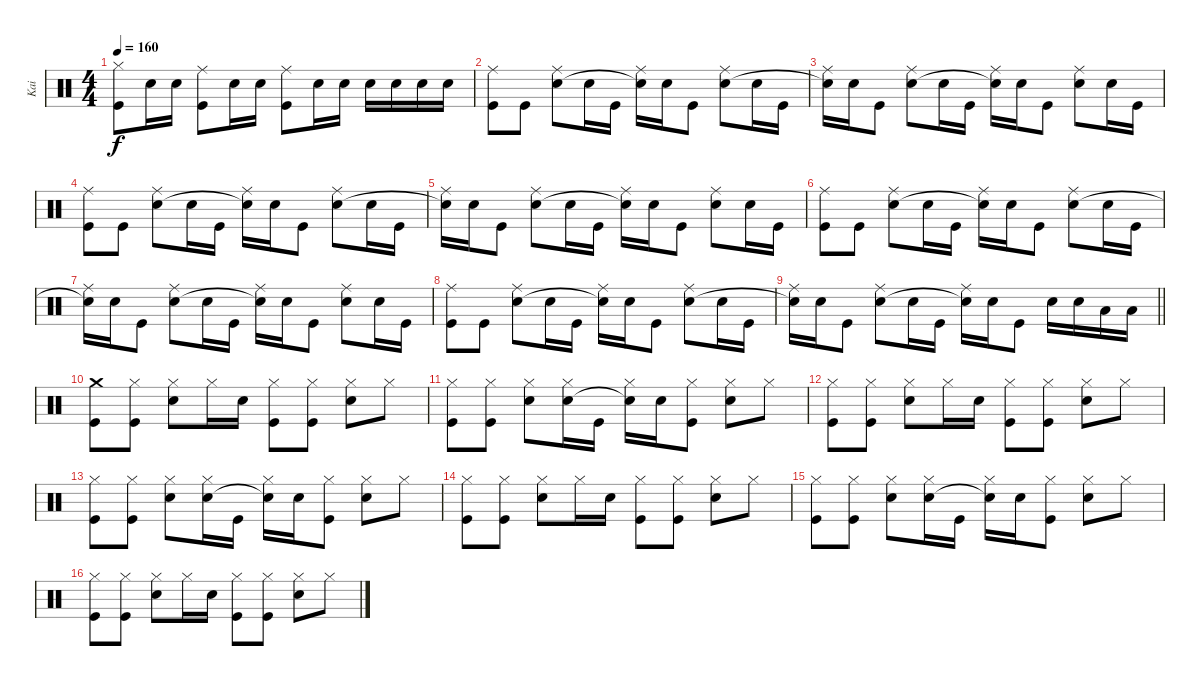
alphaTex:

\track ("Kai" "Kai") {instrument percussion}
\staff {score}
\articulation defaults
\ts (4 4)
\tempo 160
\clef neutral
\ks c
("Hi-Hat (closed)" "Kick (hit)").8{dy f} "Snare (hit) 2".16 "Snare (hit) 2".16 ("Ride (middle)" "Kick (hit)").8 "Snare (hit) 2".16 "Snare (hit) 2".16 ("Ride (middle)" "Kick (hit)").8 "Snare (hit) 2".16 "Snare (hit) 2".16 "Snare (hit) 2".16 "Snare (hit) 2".16 "Snare (hit) 2".16 "Snare (hit) 2".16 |
("Ride (middle)" "Kick (hit)").8 "Kick (hit)".8 ("Ride (middle)" "Snare (hit) 2").8 "Snare (hit) 2".16 "Kick (hit)".16 ("Ride (middle)" "Snare (hit)"{t}).16 "Snare (hit) 2".16 "Kick (hit)".8 ("Ride (middle)" "Snare (hit) 2").8 "Snare (hit) 2".16 "Kick (hit)".16 |
("Ride (middle)" "Snare (hit)"{t}).16 "Snare (hit) 2".16 "Kick (hit)".8 ("Ride (middle)" "Snare (hit) 2").8 "Snare (hit) 2".16 "Kick (hit)".16 ("Ride (middle)" "Snare (hit)"{t}).16 "Snare (hit) 2".16 "Kick (hit)".8 ("Ride (middle)" "Snare (hit) 2").8 "Snare (hit) 2".16 "Kick (hit)".16 |
("Ride (middle)" "Kick (hit)").8 "Kick (hit)".8 ("Ride (middle)" "Snare (hit) 2").8 "Snare (hit) 2".16 "Kick (hit)".16 ("Ride (middle)" "Snare (hit)"{t}).16 "Snare (hit) 2".16 "Kick (hit)".8 ("Ride (middle)" "Snare (hit) 2").8 "Snare (hit) 2".16 "Kick (hit)".16 |
("Ride (middle)" "Snare (hit)"{t}).16 "Snare (hit) 2".16 "Kick (hit)".8 ("Ride (middle)" "Snare (hit) 2").8 "Snare (hit) 2".16 "Kick (hit)".16 ("Ride (middle)" "Snare (hit)"{t}).16 "Snare (hit) 2".16 "Kick (hit)".8 ("Ride (middle)" "Snare (hit) 2").8 "Snare (hit) 2".16 "Kick (hit)".16 |
("Ride (middle)" "Kick (hit)").8 "Kick (hit)".8 ("Ride (middle)" "Snare (hit) 2").8 "Snare (hit) 2".16 "Kick (hit)".16 ("Ride (middle)" "Snare (hit)"{t}).16 "Snare (hit) 2".16 "Kick (hit)".8 ("Ride (middle)" "Snare (hit) 2").8 "Snare (hit) 2".16 "Kick (hit)".16 |
("Ride (middle)" "Snare (hit)"{t}).16 "Snare (hit) 2".16 "Kick (hit)".8 ("Ride (middle)" "Snare (hit) 2").8 "Snare (hit) 2".16 "Kick (hit)".16 ("Ride (middle)" "Snare (hit)"{t}).16 "Snare (hit) 2".16 "Kick (hit)".8 ("Ride (middle)" "Snare (hit) 2").8 "Snare (hit) 2".16 "Kick (hit)".16 |
("Ride (middle)" "Kick (hit)").8 "Kick (hit)".8 ("Ride (middle)" "Snare (hit) 2").8 "Snare (hit) 2".16 "Kick (hit)".16 ("Ride (middle)" "Snare (hit)"{t}).16 "Snare (hit) 2".16 "Kick (hit)".8 ("Ride (middle)" "Snare (hit) 2").8 "Snare (hit) 2".16 "Kick (hit)".16 |
\barLineRight lightlight
("Ride (middle)" "Snare (hit)"{t}).16 "Snare (hit) 2".16 "Kick (hit)".8 ("Ride (middle)" "Snare (hit) 2").8 "Snare (hit) 2".16 "Kick (hit)".16 ("Ride (middle)" "Snare (hit)"{t}).16 "Snare (hit) 2".16 "Kick (hit)".8 "Snare (hit) 2".16 "Snare (hit) 2".16 "Low Tom (hit)".16 "Low Tom (hit)".16 |
\section ("" "")
("Crash medium (hit)" "Kick (hit)").8 ("Hi-Hat (closed)" "Kick (hit)").8 ("Hi-Hat (closed)" "Snare (hit) 2").8 "Hi-Hat (closed)".16 "Snare (hit) 2".16 ("Hi-Hat (closed)" "Kick (hit)").8 ("Hi-Hat (closed)" "Kick (hit)").8 ("Hi-Hat (closed)" "Snare (hit) 2").8 "Hi-Hat (closed)".8 |
("Hi-Hat (closed)" "Kick (hit)").8 ("Hi-Hat (closed)" "Kick (hit)").8 ("Hi-Hat (closed)" "Snare (hit) 2").8 ("Hi-Hat (closed)" "Snare (hit) 2").16 "Kick (hit)".16 ("Hi-Hat (closed)" "Snare (hit)"{t}).16 "Snare (hit) 2".16 ("Hi-Hat (closed)" "Kick (hit)").8 ("Hi-Hat (closed)" "Snare (hit) 2").8 "Hi-Hat (closed)".8 |
("Hi-Hat (closed)" "Kick (hit)").8 ("Hi-Hat (closed)" "Kick (hit)").8 ("Hi-Hat (closed)" "Snare (hit) 2").8 "Hi-Hat (closed)".16 "Snare (hit) 2".16 ("Hi-Hat (closed)" "Kick (hit)").8 ("Hi-Hat (closed)" "Kick (hit)").8 ("Hi-Hat (closed)" "Snare (hit) 2").8 "Hi-Hat (closed)".8 |
("Hi-Hat (closed)" "Kick (hit)").8 ("Hi-Hat (closed)" "Kick (hit)").8 ("Hi-Hat (closed)" "Snare (hit) 2").8 ("Hi-Hat (closed)" "Snare (hit) 2").16 "Kick (hit)".16 ("Hi-Hat (closed)" "Snare (hit)"{t}).16 "Snare (hit) 2".16 ("Hi-Hat (closed)" "Kick (hit)").8 ("Hi-Hat (closed)" "Snare (hit) 2").8 "Hi-Hat (closed)".8 |
("Hi-Hat (closed)" "Kick (hit)").8 ("Hi-Hat (closed)" "Kick (hit)").8 ("Hi-Hat (closed)" "Snare (hit) 2").8 "Hi-Hat (closed)".16 "Snare (hit) 2".16 ("Hi-Hat (closed)" "Kick (hit)").8 ("Hi-Hat (closed)" "Kick (hit)").8 ("Hi-Hat (closed)" "Snare (hit) 2").8 "Hi-Hat (closed)".8 |
("Hi-Hat (closed)" "Kick (hit)").8 ("Hi-Hat (closed)" "Kick (hit)").8 ("Hi-Hat (closed)" "Snare (hit) 2").8 ("Hi-Hat (closed)" "Snare (hit) 2").16 "Kick (hit)".16 ("Hi-Hat (closed)" "Snare (hit)"{t}).16 "Snare (hit) 2".16 ("Hi-Hat (closed)" "Kick (hit)").8 ("Hi-Hat (closed)" "Snare (hit) 2").8 "Hi-Hat (closed)".8 |
("Hi-Hat (closed)" "Kick (hit)").8 ("Hi-Hat (closed)" "Kick (hit)").8 ("Hi-Hat (closed)" "Snare (hit) 2").8 "Hi-Hat (closed)".16 "Snare (hit) 2".16 ("Hi-Hat (closed)" "Kick (hit)").8 ("Hi-Hat (closed)" "Kick (hit)").8 ("Hi-Hat (closed)" "Snare (hit) 2").8 "Hi-Hat (closed)".8
